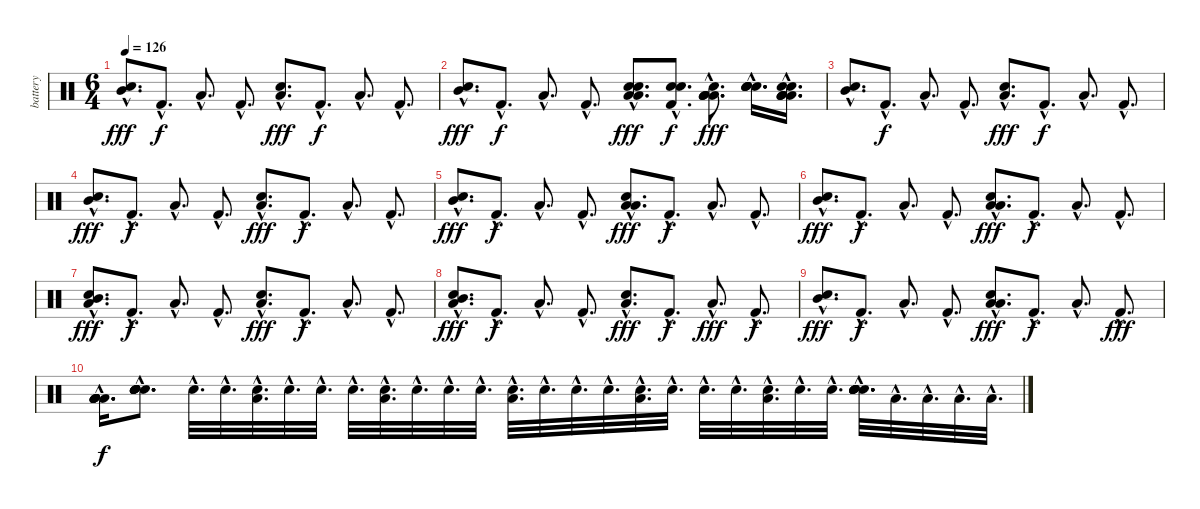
\track ("battery" "battery") {instrument percussion}
\staff {score}
\articulation defaults
\ts (6 4)
\tempo 126
\clef neutral
\ks c
("Snare (hit) 2"{hac} "Mid Tom (hit)"{hac}).8{d dy fff} "Kick (hit) 2"{hac}.8{d dy f} "Low Tom (hit)"{hac}.8{d} "Kick (hit) 2"{hac}.8{d} ("Snare (hit) 2"{hac} "Low Tom (hit)"{hac}).8{d dy fff} "Kick (hit) 2"{hac}.8{d dy f} "Low Tom (hit)"{hac}.8{d} "Kick (hit) 2"{hac}.8{d} |
("Snare (hit) 2"{hac} "Mid Tom (hit)"{hac}).8{d dy fff} "Kick (hit) 2"{hac}.8{d dy f} "Low Tom (hit)"{hac}.8{d} "Kick (hit) 2"{hac}.8{d} ("Snare (hit) 2"{hac} "Low Tom (hit)"{hac} "Low Tom (hit)"{hac} "Snare (hit) 2"{hac}).8{d dy fff} ("Kick (hit) 2"{hac} "Snare (hit) 2"{hac} "Snare (hit) 2"{hac}).8{d dy f} ("Snare (hit) 2"{hac} "Low Tom (hit)"{hac} "Low Tom (hit)"{hac} "Low Tom (hit)"{hac} "Low Tom (hit)"{hac}).8{d dy fff} ("Snare (hit) 2"{hac} "Snare (hit) 2"{hac} "Snare (hit) 2"{hac} "Snare (hit) 2"{hac} "Snare (hit) 2"{hac}).16{d} ("Snare (hit) 2"{hac} "Low Tom (hit)"{hac} "Snare (hit) 2"{hac} "Low Tom (hit)"{hac} "Low Tom (hit)"{hac} "Low Tom (hit)"{hac}).16{d} |
("Snare (hit) 2"{hac} "Mid Tom (hit)"{hac}).8{d} "Kick (hit) 2"{hac}.8{d dy f} "Low Tom (hit)"{hac}.8{d} "Kick (hit) 2"{hac}.8{d} ("Snare (hit) 2"{hac} "Low Tom (hit)"{hac}).8{d dy fff} "Kick (hit) 2"{hac}.8{d dy f} "Low Tom (hit)"{hac}.8{d} "Kick (hit) 2"{hac}.8{d} |
("Snare (hit) 2"{hac} "Mid Tom (hit)"{hac}).8{d dy fff} "Kick (hit) 2"{hac}.8{d dy f} "Low Tom (hit)"{hac}.8{d} "Kick (hit) 2"{hac}.8{d} ("Snare (hit) 2"{hac} "Low Tom (hit)"{hac}).8{d dy fff} "Kick (hit) 2"{hac}.8{d dy f} "Low Tom (hit)"{hac}.8{d} "Kick (hit) 2"{hac}.8{d} |
("Snare (hit) 2"{hac} "Mid Tom (hit)"{hac}).8{d dy fff} "Kick (hit) 2"{hac}.8{d dy f} "Low Tom (hit)"{hac}.8{d} "Kick (hit) 2"{hac}.8{d} ("Snare (hit) 2"{hac} "Low Tom (hit)"{hac} "Low Tom (hit)"{hac}).8{d dy fff} "Kick (hit) 2"{hac}.8{d dy f} "Low Tom (hit)"{hac}.8{d} "Kick (hit) 2"{hac}.8{d} |
("Snare (hit) 2"{hac} "Mid Tom (hit)"{hac}).8{d dy fff} "Kick (hit) 2"{hac}.8{d dy f} "Low Tom (hit)"{hac}.8{d} "Kick (hit) 2"{hac}.8{d} ("Snare (hit) 2"{hac} "Low Tom (hit)"{hac} "Low Tom (hit)"{hac}).8{d dy fff} "Kick (hit) 2"{hac}.8{d dy f} "Low Tom (hit)"{hac}.8{d} "Kick (hit) 2"{hac}.8{d} |
("Low Tom (hit)"{hac} "Snare (hit) 2"{hac} "Mid Tom (hit)"{hac}).8{d dy fff} "Kick (hit) 2"{hac}.8{d dy f} "Low Tom (hit)"{hac}.8{d} "Kick (hit) 2"{hac}.8{d} ("Snare (hit) 2"{hac} "Low Tom (hit)"{hac}).8{d dy fff} "Kick (hit) 2"{hac}.8{d dy f} "Low Tom (hit)"{hac}.8{d} "Kick (hit) 2"{hac}.8{d} |
("Low Tom (hit)"{hac} "Snare (hit) 2"{hac} "Mid Tom (hit)"{hac}).8{d dy fff} "Kick (hit) 2"{hac}.8{d dy f} "Low Tom (hit)"{hac}.8{d} "Kick (hit) 2"{hac}.8{d} ("Snare (hit) 2"{hac} "Low Tom (hit)"{hac}).8{d dy fff} "Kick (hit) 2"{hac}.8{d dy f} "Low Tom (hit)"{hac}.8{d dy fff} "Kick (hit) 2"{hac}.8{d dy f} |
("Snare (hit) 2"{hac} "Mid Tom (hit)"{hac}).8{d dy fff} "Kick (hit) 2"{hac}.8{d dy f} "Low Tom (hit)"{hac}.8{d} "Kick (hit) 2"{hac}.8{d} ("Snare (hit) 2"{hac} "Low Tom (hit)"{hac} "Low Tom (hit)"{hac}).8{d dy fff} "Kick (hit) 2"{hac}.8{d dy f} "Low Tom (hit)"{hac}.8{d} "Kick (hit) 2"{hac}.8{d dy fff} |
("Low Tom (hit)"{hac} "Low Tom (hit)"{hac} "Low Tom (hit)"{hac} "Low Tom (hit)"{hac} "Low Tom (hit)"{hac} "Low Tom (hit)"{hac}).16{d dy f} ("Snare (hit) 2"{hac} "Snare (hit) 2"{hac} "Snare (hit) 2"{hac} "Snare (hit) 2"{hac} "Snare (hit) 2"{hac} "Snare (hit) 2"{hac}).8{d} "Snare (hit) 2"{hac}.32{d} "Snare (hit) 2"{hac}.32{d} ("Low Tom (hit)"{hac} "Snare (hit) 2"{hac}).32{d} "Snare (hit) 2"{hac}.32{d} "Snare (hit) 2"{hac}.32{d} "Snare (hit) 2"{hac}.32{d} ("Low Tom (hit)"{hac} "Snare (hit) 2"{hac}).32{d} "Snare (hit) 2"{hac}.32{d} "Snare (hit) 2"{hac}.32{d} "Snare (hit) 2"{hac}.32{d} ("Low Tom (hit)"{hac} "Snare (hit) 2"{hac}).32{d} "Snare (hit) 2"{hac}.32{d} "Snare (hit) 2"{hac}.32{d} "Snare (hit) 2"{hac}.32{d} ("Low Tom (hit)"{hac} "Snare (hit) 2"{hac}).32{d} "Snare (hit) 2"{hac}.32{d} "Snare (hit) 2"{hac}.32{d} "Snare (hit) 2"{hac}.32{d} ("Low Tom (hit)"{hac} "Snare (hit) 2"{hac}).32{d} "Snare (hit) 2"{hac}.32{d} "Snare (hit) 2"{hac}.32{d} ("Snare (hit) 2"{hac} "Snare (hit) 2"{hac} "Snare (hit) 2"{hac} "Snare (hit) 2"{hac} "Snare (hit) 2"{hac} "Snare (hit) 2"{hac}).32{d} "Low Tom (hit)"{hac}.32{d} "Low Tom (hit)"{hac}.32{d} "Low Tom (hit)"{hac}.32{d} "Low Tom (hit)"{hac}.32{d}
